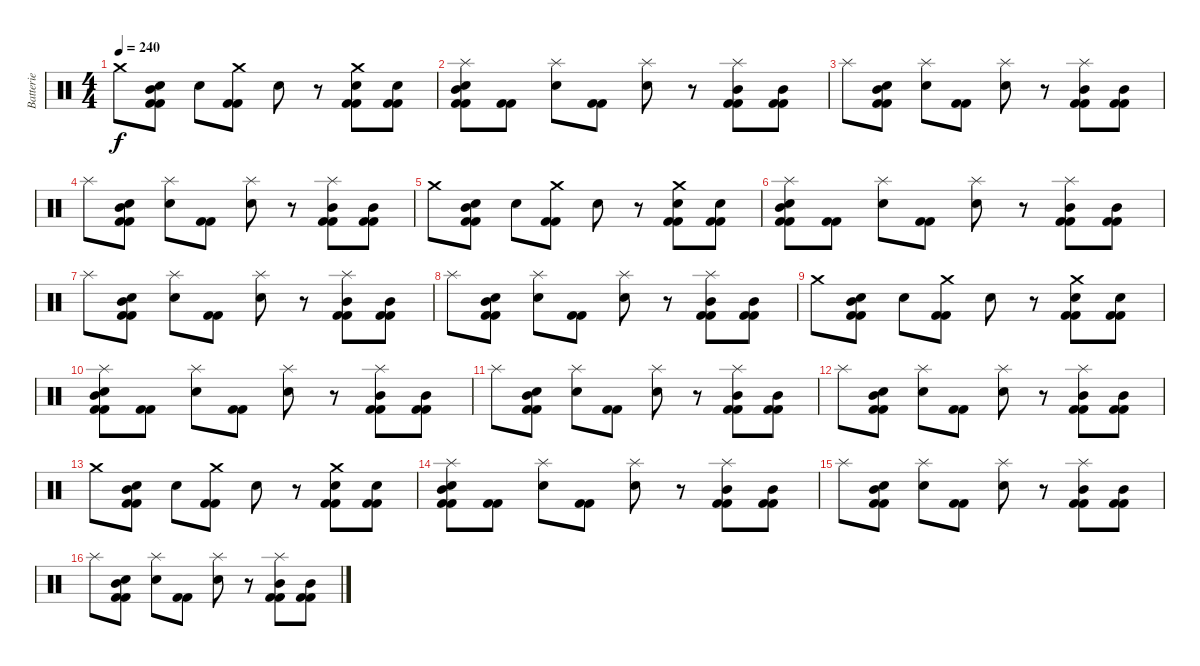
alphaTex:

\track ("Batterie" "Batterie") {instrument percussion}
\staff {score}
\articulation defaults
\ts (4 4)
\tempo 240
\clef neutral
\ks c "Crash medium (hit)".8{dy f}
("Snare (hit) 2" "Mid Tom (hit)" "Kick (hit) 2" "Kick (hit) 2").8 "Snare (hit) 2".8 ("Crash medium (hit)" "Kick (hit) 2" "Kick (hit) 2").8 "Snare (hit) 2".8 r.8 ("Crash medium (hit)" "Snare (hit) 2" "Kick (hit) 2" "Kick (hit) 2").8 ("Snare (hit) 2" "Kick (hit) 2" "Kick (hit) 2").8 |
("Splash (hit)" "Snare (hit) 2" "Mid Tom (hit)" "Kick (hit) 2" "Kick (hit) 2").8 ("Kick (hit) 2" "Kick (hit) 2").8 ("Splash (hit)" "Snare (hit) 2").8 ("Kick (hit) 2" "Kick (hit) 2").8 ("Splash (hit)" "Snare (hit) 2").8 r.8 ("Splash (hit)" "Mid Tom (hit)" "Kick (hit) 2" "Kick (hit) 2").8 ("Mid Tom (hit)" "Kick (hit) 2" "Kick (hit) 2").8 |
"Splash (hit)".8 ("Snare (hit) 2" "Mid Tom (hit)" "Kick (hit) 2" "Kick (hit) 2").8 ("Splash (hit)" "Snare (hit) 2").8 ("Kick (hit) 2" "Kick (hit) 2").8 ("Splash (hit)" "Snare (hit) 2").8 r.8 ("Splash (hit)" "Mid Tom (hit)" "Kick (hit) 2" "Kick (hit) 2").8 ("Mid Tom (hit)" "Kick (hit) 2" "Kick (hit) 2").8 |
"Splash (hit)".8 ("Snare (hit) 2" "Mid Tom (hit)" "Kick (hit) 2" "Kick (hit) 2").8 ("Splash (hit)" "Snare (hit) 2").8 ("Kick (hit) 2" "Kick (hit) 2").8 ("Splash (hit)" "Snare (hit) 2").8 r.8 ("Splash (hit)" "Mid Tom (hit)" "Kick (hit) 2" "Kick (hit) 2").8 ("Mid Tom (hit)" "Kick (hit) 2" "Kick (hit) 2").8 |
"Crash medium (hit)".8 ("Snare (hit) 2" "Mid Tom (hit)" "Kick (hit) 2" "Kick (hit) 2").8 "Snare (hit) 2".8 ("Crash medium (hit)" "Kick (hit) 2" "Kick (hit) 2").8 "Snare (hit) 2".8 r.8 ("Crash medium (hit)" "Snare (hit) 2" "Kick (hit) 2" "Kick (hit) 2").8 ("Snare (hit) 2" "Kick (hit) 2" "Kick (hit) 2").8 |
("Splash (hit)" "Snare (hit) 2" "Mid Tom (hit)" "Kick (hit) 2" "Kick (hit) 2").8 ("Kick (hit) 2" "Kick (hit) 2").8 ("Splash (hit)" "Snare (hit) 2").8 ("Kick (hit) 2" "Kick (hit) 2").8 ("Splash (hit)" "Snare (hit) 2").8 r.8 ("Splash (hit)" "Mid Tom (hit)" "Kick (hit) 2" "Kick (hit) 2").8 ("Mid Tom (hit)" "Kick (hit) 2" "Kick (hit) 2").8 |
"Splash (hit)".8 ("Snare (hit) 2" "Mid Tom (hit)" "Kick (hit) 2" "Kick (hit) 2").8 ("Splash (hit)" "Snare (hit) 2").8 ("Kick (hit) 2" "Kick (hit) 2").8 ("Splash (hit)" "Snare (hit) 2").8 r.8 ("Splash (hit)" "Mid Tom (hit)" "Kick (hit) 2" "Kick (hit) 2").8 ("Mid Tom (hit)" "Kick (hit) 2" "Kick (hit) 2").8 |
"Splash (hit)".8 ("Snare (hit) 2" "Mid Tom (hit)" "Kick (hit) 2" "Kick (hit) 2").8 ("Splash (hit)" "Snare (hit) 2").8 ("Kick (hit) 2" "Kick (hit) 2").8 ("Splash (hit)" "Snare (hit) 2").8 r.8 ("Splash (hit)" "Mid Tom (hit)" "Kick (hit) 2" "Kick (hit) 2").8 ("Mid Tom (hit)" "Kick (hit) 2" "Kick (hit) 2").8 |
"Crash medium (hit)".8 ("Snare (hit) 2" "Mid Tom (hit)" "Kick (hit) 2" "Kick (hit) 2").8 "Snare (hit) 2".8 ("Crash medium (hit)" "Kick (hit) 2" "Kick (hit) 2").8 "Snare (hit) 2".8 r.8 ("Crash medium (hit)" "Snare (hit) 2" "Kick (hit) 2" "Kick (hit) 2").8 ("Snare (hit) 2" "Kick (hit) 2" "Kick (hit) 2").8 |
("Splash (hit)" "Snare (hit) 2" "Mid Tom (hit)" "Kick (hit) 2" "Kick (hit) 2").8 ("Kick (hit) 2" "Kick (hit) 2").8 ("Splash (hit)" "Snare (hit) 2").8 ("Kick (hit) 2" "Kick (hit) 2").8 ("Splash (hit)" "Snare (hit) 2").8 r.8 ("Splash (hit)" "Mid Tom (hit)" "Kick (hit) 2" "Kick (hit) 2").8 ("Mid Tom (hit)" "Kick (hit) 2" "Kick (hit) 2").8 |
"Splash (hit)".8 ("Snare (hit) 2" "Mid Tom (hit)" "Kick (hit) 2" "Kick (hit) 2").8 ("Splash (hit)" "Snare (hit) 2").8 ("Kick (hit) 2" "Kick (hit) 2").8 ("Splash (hit)" "Snare (hit) 2").8 r.8 ("Splash (hit)" "Mid Tom (hit)" "Kick (hit) 2" "Kick (hit) 2").8 ("Mid Tom (hit)" "Kick (hit) 2" "Kick (hit) 2").8 |
"Splash (hit)".8 ("Snare (hit) 2" "Mid Tom (hit)" "Kick (hit) 2" "Kick (hit) 2").8 ("Splash (hit)" "Snare (hit) 2").8 ("Kick (hit) 2" "Kick (hit) 2").8 ("Splash (hit)" "Snare (hit) 2").8 r.8 ("Splash (hit)" "Mid Tom (hit)" "Kick (hit) 2" "Kick (hit) 2").8 ("Mid Tom (hit)" "Kick (hit) 2" "Kick (hit) 2").8 |
"Crash medium (hit)".8 ("Snare (hit) 2" "Mid Tom (hit)" "Kick (hit) 2" "Kick (hit) 2").8 "Snare (hit) 2".8 ("Crash medium (hit)" "Kick (hit) 2" "Kick (hit) 2").8 "Snare (hit) 2".8 r.8 ("Crash medium (hit)" "Snare (hit) 2" "Kick (hit) 2" "Kick (hit) 2").8 ("Snare (hit) 2" "Kick (hit) 2" "Kick (hit) 2").8 |
("Splash (hit)" "Snare (hit) 2" "Mid Tom (hit)" "Kick (hit) 2" "Kick (hit) 2").8 ("Kick (hit) 2" "Kick (hit) 2").8 ("Splash (hit)" "Snare (hit) 2").8 ("Kick (hit) 2" "Kick (hit) 2").8 ("Splash (hit)" "Snare (hit) 2").8 r.8 ("Splash (hit)" "Mid Tom (hit)" "Kick (hit) 2" "Kick (hit) 2").8 ("Mid Tom (hit)" "Kick (hit) 2" "Kick (hit) 2").8 |
"Splash (hit)".8 ("Snare (hit) 2" "Mid Tom (hit)" "Kick (hit) 2" "Kick (hit) 2").8 ("Splash (hit)" "Snare (hit) 2").8 ("Kick (hit) 2" "Kick (hit) 2").8 ("Splash (hit)" "Snare (hit) 2").8 r.8 ("Splash (hit)" "Mid Tom (hit)" "Kick (hit) 2" "Kick (hit) 2").8 ("Mid Tom (hit)" "Kick (hit) 2" "Kick (hit) 2").8 |
"Splash (hit)".8 ("Snare (hit) 2" "Mid Tom (hit)" "Kick (hit) 2" "Kick (hit) 2").8 ("Splash (hit)" "Snare (hit) 2").8 ("Kick (hit) 2" "Kick (hit) 2").8 ("Splash (hit)" "Snare (hit) 2").8 r.8 ("Splash (hit)" "Mid Tom (hit)" "Kick (hit) 2" "Kick (hit) 2").8 ("Mid Tom (hit)" "Kick (hit) 2" "Kick (hit) 2").8
